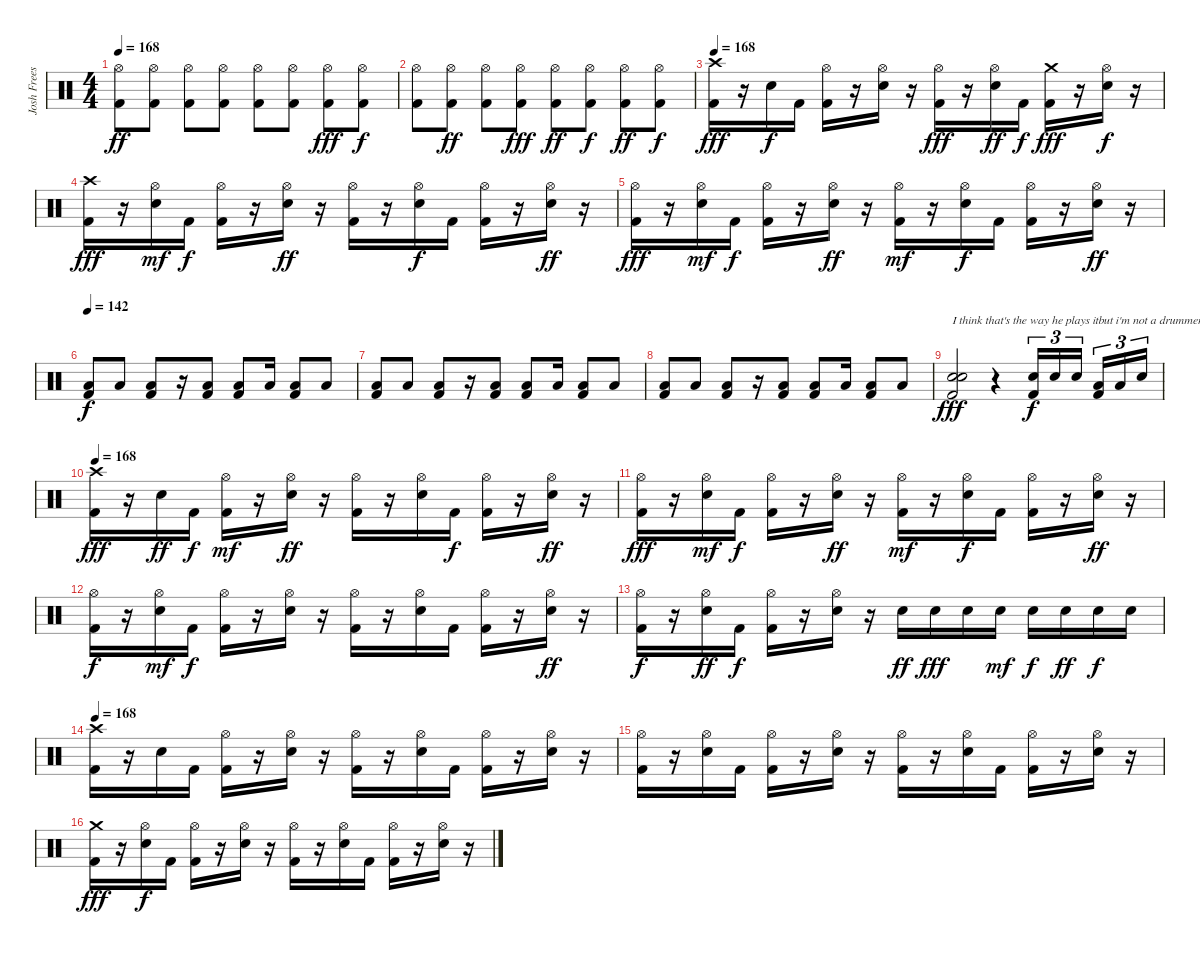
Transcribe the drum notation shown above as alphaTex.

\track ("Josh Freese" "Josh Frees") {instrument percussion}
\staff {score}
\articulation defaults
\ts (4 4)
\tempo 168
\clef neutral
\ks c
("Hi-Hat (open)" "Kick (hit) 2").8{dy ff} ("Hi-Hat (open)" "Kick (hit) 2").8 ("Hi-Hat (open)" "Kick (hit) 2").8 ("Hi-Hat (open)" "Kick (hit) 2").8 ("Hi-Hat (open)" "Kick (hit) 2").8 ("Hi-Hat (open)" "Kick (hit) 2").8 ("Hi-Hat (open)" "Kick (hit) 2").8{dy fff} ("Hi-Hat (open)" "Kick (hit) 2").8{dy f} |
("Hi-Hat (open)" "Kick (hit) 2").8 ("Hi-Hat (open)" "Kick (hit) 2").8{dy ff} ("Hi-Hat (open)" "Kick (hit) 2").8 ("Hi-Hat (open)" "Kick (hit) 2").8{dy fff} ("Hi-Hat (open)" "Kick (hit) 2").8{dy ff} ("Hi-Hat (open)" "Kick (hit) 2").8{dy f} ("Hi-Hat (open)" "Kick (hit) 2").8{dy ff} ("Hi-Hat (open)" "Kick (hit) 2").8{dy f} |
\tempo 168
("Crash high (hit)" "Kick (hit) 2").16{dy fff} r.16 "Electric Snare (hit)".16{dy f} "Kick (hit) 2".16 ("Hi-Hat (open)" "Kick (hit) 2").16 r.16 ("Hi-Hat (open)" "Electric Snare (hit)").16 r.16 ("Hi-Hat (open)" "Kick (hit) 2").16{dy fff} r.16 ("Hi-Hat (open)" "Electric Snare (hit)").16{dy ff} "Kick (hit) 2".16{dy f} ("Crash medium (hit)" "Kick (hit) 2").16{dy fff} r.16 ("Hi-Hat (open)" "Electric Snare (hit)").16{dy f} r.16 |
("Crash high (hit)" "Kick (hit) 2").16{dy fff} r.16 ("Hi-Hat (open)" "Electric Snare (hit)").16{dy mf} "Kick (hit) 2".16{dy f} ("Hi-Hat (open)" "Kick (hit) 2").16 r.16 ("Hi-Hat (open)" "Electric Snare (hit)").16{dy ff} r.16 ("Hi-Hat (open)" "Kick (hit) 2").16 r.16 ("Hi-Hat (open)" "Electric Snare (hit)").16{dy f} "Kick (hit) 2".16 ("Hi-Hat (open)" "Kick (hit) 2").16 r.16 ("Hi-Hat (open)" "Electric Snare (hit)").16{dy ff} r.16 |
("Hi-Hat (open)" "Kick (hit) 2").16{dy fff} r.16 ("Hi-Hat (open)" "Electric Snare (hit)").16{dy mf} "Kick (hit) 2".16{dy f} ("Hi-Hat (open)" "Kick (hit) 2").16 r.16 ("Hi-Hat (open)" "Electric Snare (hit)").16{dy ff} r.16 ("Hi-Hat (open)" "Kick (hit) 2").16{dy mf} r.16 ("Hi-Hat (open)" "Electric Snare (hit)").16{dy f} "Kick (hit) 2".16 ("Hi-Hat (open)" "Kick (hit) 2").16 r.16 ("Hi-Hat (open)" "Electric Snare (hit)").16{dy ff} r.16 |
\tempo 145
\tempo 142
("Low Tom (hit)" "Kick (hit) 2").8{dy f} "Low Tom (hit)".8 ("Low Floor Tom (hit)" "Kick (hit) 2").8 r.16 ("Low Tom (hit)" "Kick (hit) 2").8 ("Low Tom (hit)" "Kick (hit) 2").8 "Low Tom (hit)".16 ("Low Floor Tom (hit)" "Kick (hit) 2").8 "Low Floor Tom (hit)".8 |
("Low Tom (hit)" "Kick (hit) 2").8 "Low Tom (hit)".8 ("Low Floor Tom (hit)" "Kick (hit) 2").8 r.16 ("Low Tom (hit)" "Kick (hit) 2").8 ("Low Tom (hit)" "Kick (hit) 2").8 "Low Tom (hit)".16 ("Low Floor Tom (hit)" "Kick (hit) 2").8 "Low Floor Tom (hit)".8 |
("Low Tom (hit)" "Kick (hit) 2").8 "Low Tom (hit)".8 ("Low Floor Tom (hit)" "Kick (hit) 2").8 r.16 ("Low Tom (hit)" "Kick (hit) 2").8 ("Low Tom (hit)" "Kick (hit) 2").8 "Low Tom (hit)".16 ("Low Floor Tom (hit)" "Kick (hit) 2").8 "Low Floor Tom (hit)".8 |
("Electric Snare (hit)" "Electric Snare (hit)" "Kick (hit) 2").2{txt "I think that's the way he plays it" dy fff} r.4 ("Electric Snare (hit)" "Kick (hit) 2").16{tu (3 2) dy f} "Electric Snare (hit)".16{tu (3 2)} "Electric Snare (hit)".16{tu (3 2)} ("Low Tom (hit)" "Kick (hit) 2").16{tu (3 2) txt "but i'm not a drummer so I need over point of view"} "Low Floor Tom (hit)".16{tu (3 2)} "Electric Snare (hit)".16{tu (3 2)} |
\tempo 168
("Crash high (hit)" "Kick (hit) 2").16{dy fff} r.16 "Electric Snare (hit)".16{dy ff} "Kick (hit) 2".16{dy f} ("Hi-Hat (open)" "Kick (hit) 2").16{dy mf} r.16 ("Hi-Hat (open)" "Electric Snare (hit)").16{dy ff} r.16 ("Hi-Hat (open)" "Kick (hit) 2").16 r.16 ("Hi-Hat (open)" "Electric Snare (hit)").16 "Kick (hit) 2".16{dy f} ("Hi-Hat (open)" "Kick (hit) 2").16 r.16 ("Hi-Hat (open)" "Electric Snare (hit)").16{dy ff} r.16 |
("Hi-Hat (open)" "Kick (hit) 2").16{dy fff} r.16 ("Hi-Hat (open)" "Electric Snare (hit)").16{dy mf} "Kick (hit) 2".16{dy f} ("Hi-Hat (open)" "Kick (hit) 2").16 r.16 ("Hi-Hat (open)" "Electric Snare (hit)").16{dy ff} r.16 ("Hi-Hat (open)" "Kick (hit) 2").16{dy mf} r.16 ("Hi-Hat (open)" "Electric Snare (hit)").16{dy f} "Kick (hit) 2".16 ("Hi-Hat (open)" "Kick (hit) 2").16 r.16 ("Hi-Hat (open)" "Electric Snare (hit)").16{dy ff} r.16 |
("Hi-Hat (open)" "Kick (hit) 2").16{dy f} r.16 ("Hi-Hat (open)" "Electric Snare (hit)").16{dy mf} "Kick (hit) 2".16{dy f} ("Hi-Hat (open)" "Kick (hit) 2").16 r.16 ("Hi-Hat (open)" "Electric Snare (hit)").16 r.16 ("Hi-Hat (open)" "Kick (hit) 2").16 r.16 ("Hi-Hat (open)" "Electric Snare (hit)").16 "Kick (hit) 2".16 ("Hi-Hat (open)" "Kick (hit) 2").16 r.16 ("Hi-Hat (open)" "Electric Snare (hit)").16{dy ff} r.16 |
("Hi-Hat (open)" "Kick (hit) 2").16{dy f} r.16 ("Hi-Hat (open)" "Electric Snare (hit)").16{dy ff} "Kick (hit) 2".16{dy f} ("Hi-Hat (open)" "Kick (hit) 2").16 r.16 ("Hi-Hat (open)" "Electric Snare (hit)").16 r.16 "Electric Snare (hit)".16{dy ff} "Electric Snare (hit)".16{dy fff} "Electric Snare (hit)".16 "Electric Snare (hit)".16{dy mf} "Electric Snare (hit)".16{dy f} "Electric Snare (hit)".16{dy ff} "Electric Snare (hit)".16{dy f} "Electric Snare (hit)".16 |
\tempo 168
("Crash high (hit)" "Kick (hit) 2").16 r.16 "Electric Snare (hit)".16 "Kick (hit) 2".16 ("Hi-Hat (open)" "Kick (hit) 2").16 r.16 ("Hi-Hat (open)" "Electric Snare (hit)").16 r.16 ("Hi-Hat (open)" "Kick (hit) 2").16 r.16 ("Hi-Hat (open)" "Electric Snare (hit)").16 "Kick (hit) 2".16 ("Hi-Hat (open)" "Kick (hit) 2").16 r.16 ("Hi-Hat (open)" "Electric Snare (hit)").16 r.16 |
("Hi-Hat (open)" "Kick (hit) 2").16 r.16 ("Hi-Hat (open)" "Electric Snare (hit)").16 "Kick (hit) 2".16 ("Hi-Hat (open)" "Kick (hit) 2").16 r.16 ("Hi-Hat (open)" "Electric Snare (hit)").16 r.16 ("Hi-Hat (open)" "Kick (hit) 2").16 r.16 ("Hi-Hat (open)" "Electric Snare (hit)").16 "Kick (hit) 2".16 ("Hi-Hat (open)" "Kick (hit) 2").16 r.16 ("Hi-Hat (open)" "Electric Snare (hit)").16 r.16 |
("Crash medium (hit)" "Kick (hit) 2").16{dy fff} r.16 ("Hi-Hat (open)" "Electric Snare (hit)").16{dy f} "Kick (hit) 2".16 ("Hi-Hat (open)" "Kick (hit) 2").16 r.16 ("Hi-Hat (open)" "Electric Snare (hit)").16 r.16 ("Hi-Hat (open)" "Kick (hit) 2").16 r.16 ("Hi-Hat (open)" "Electric Snare (hit)").16 "Kick (hit) 2".16 ("Hi-Hat (open)" "Kick (hit) 2").16 r.16 ("Hi-Hat (open)" "Electric Snare (hit)").16 r.16
